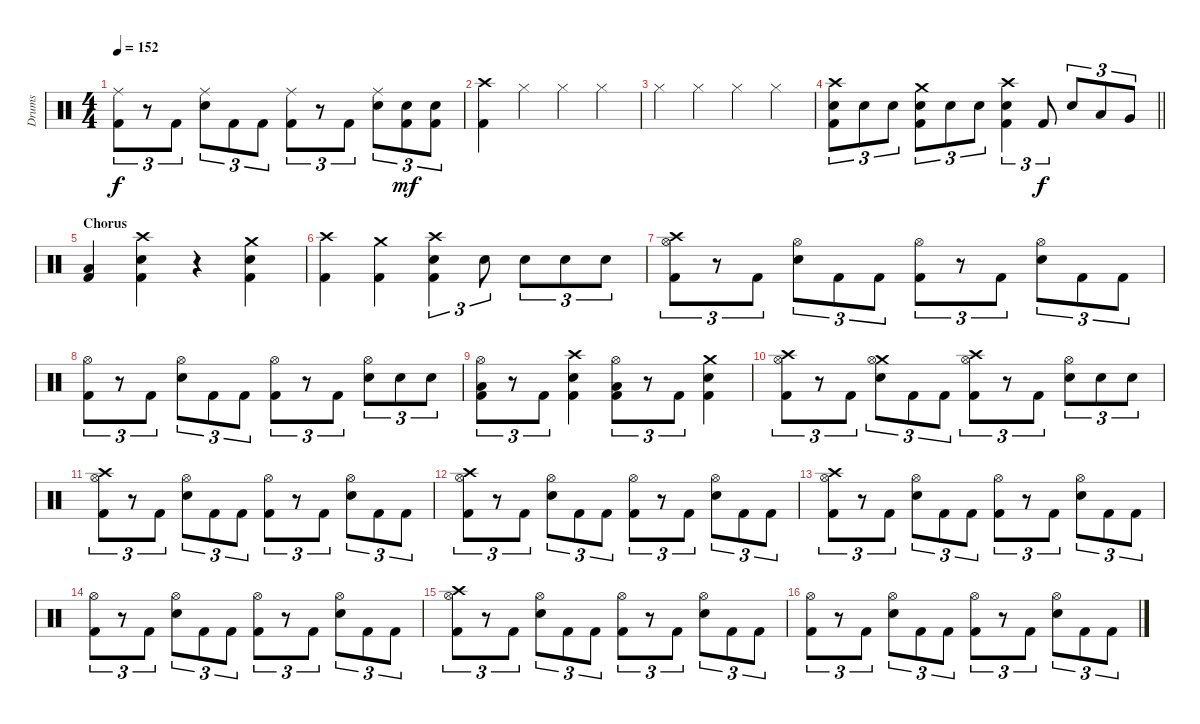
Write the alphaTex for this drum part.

\track ("Drums" "Drums") {instrument percussion}
\staff {score}
\articulation defaults
\ts (4 4)
\tempo 152
\clef neutral
\ks c
("Ride (middle)" "Kick (hit) 2").8{tu (3 2) dy f} r.8{tu (3 2)} "Kick (hit) 2".8{tu (3 2)} ("Ride (middle)" "Snare (hit) 2").8{tu (3 2)} "Kick (hit) 2".8{tu (3 2)} "Kick (hit) 2".8{tu (3 2)} ("Ride (middle)" "Kick (hit) 2").8{tu (3 2)} r.8{tu (3 2)} "Kick (hit) 2".8{tu (3 2)} ("Ride (middle)" "Snare (hit) 2").8{tu (3 2)} ("Snare (hit) 2" "Kick (hit) 2").8{tu (3 2) dy mf} ("Snare (hit) 2" "Kick (hit) 2").8{tu (3 2)} |
("Crash high (hit)" "Kick (hit) 2").4 "Hi-Hat (closed)".4 "Hi-Hat (closed)".4 "Hi-Hat (closed)".4 |
"Hi-Hat (closed)".4 "Hi-Hat (closed)".4 "Hi-Hat (closed)".4 "Hi-Hat (closed)".4 |
\barLineRight lightlight
("Crash high (hit)" "Snare (hit) 2" "Kick (hit) 2").8{tu (3 2)} "Snare (hit) 2".8{tu (3 2)} "Snare (hit) 2".8{tu (3 2)} ("Crash medium (hit)" "Snare (hit) 2" "Kick (hit) 2").8{tu (3 2)} "Snare (hit) 2".8{tu (3 2)} "Snare (hit) 2".8{tu (3 2)} ("Crash high (hit)" "Snare (hit) 2" "Kick (hit) 2").4{tu (3 2)} "Kick (hit) 2".8{tu (3 2) dy f} "Snare (hit) 2".8{tu (3 2)} "Low Tom (hit)".8{tu (3 2)} "Very Low Tom (hit)".8{tu (3 2)} |
\section ("" "Chorus")
("Low Floor Tom (hit)" "Kick (hit) 2").4 ("Crash high (hit)" "Snare (hit) 2" "Kick (hit) 2").4 r.4 ("Crash medium (hit)" "Snare (hit) 2" "Kick (hit) 2").4 |
("Crash high (hit)" "Kick (hit) 2").4 ("Crash medium (hit)" "Kick (hit) 2").4 ("Crash high (hit)" "Snare (hit) 2" "Kick (hit) 2").4{tu (3 2)} "Snare (hit) 2".8{tu (3 2)} "Snare (hit) 2".8{tu (3 2)} "Snare (hit) 2".8{tu (3 2)} "Snare (hit) 2".8{tu (3 2)} |
("Crash high (hit)" "Hi-Hat (open)" "Kick (hit) 2").8{tu (3 2)} r.8{tu (3 2)} "Kick (hit) 2".8{tu (3 2)} ("Hi-Hat (open)" "Snare (hit) 2").8{tu (3 2)} "Kick (hit) 2".8{tu (3 2)} "Kick (hit) 2".8{tu (3 2)} ("Hi-Hat (open)" "Kick (hit) 2").8{tu (3 2)} r.8{tu (3 2)} "Kick (hit) 2".8{tu (3 2)} ("Hi-Hat (open)" "Snare (hit) 2").8{tu (3 2)} "Kick (hit) 2".8{tu (3 2)} "Kick (hit) 2".8{tu (3 2)} |
("Hi-Hat (open)" "Kick (hit) 2").8{tu (3 2)} r.8{tu (3 2)} "Kick (hit) 2".8{tu (3 2)} ("Hi-Hat (open)" "Snare (hit) 2").8{tu (3 2)} "Kick (hit) 2".8{tu (3 2)} "Kick (hit) 2".8{tu (3 2)} ("Hi-Hat (open)" "Kick (hit) 2").8{tu (3 2)} r.8{tu (3 2)} "Kick (hit) 2".8{tu (3 2)} ("Hi-Hat (open)" "Snare (hit) 2").8{tu (3 2)} "Snare (hit) 2".8{tu (3 2)} "Snare (hit) 2".8{tu (3 2)} |
("Hi-Hat (open)" "Low Floor Tom (hit)" "Kick (hit) 2").8{tu (3 2)} r.8{tu (3 2)} "Kick (hit) 2".8{tu (3 2)} ("Crash high (hit)" "Snare (hit) 2" "Kick (hit) 2").4 ("Hi-Hat (open)" "Low Floor Tom (hit)" "Kick (hit) 2").8{tu (3 2)} r.8{tu (3 2)} "Kick (hit) 2".8{tu (3 2)} ("Crash medium (hit)" "Snare (hit) 2" "Kick (hit) 2").4 |
("Crash high (hit)" "Hi-Hat (open)" "Kick (hit) 2").8{tu (3 2)} r.8{tu (3 2)} "Kick (hit) 2".8{tu (3 2)} ("Crash medium (hit)" "Hi-Hat (open)" "Snare (hit) 2").8{tu (3 2)} "Kick (hit) 2".8{tu (3 2)} "Kick (hit) 2".8{tu (3 2)} ("Crash high (hit)" "Hi-Hat (open)" "Kick (hit) 2").8{tu (3 2)} r.8{tu (3 2)} "Kick (hit) 2".8{tu (3 2)} ("Hi-Hat (open)" "Snare (hit) 2").8{tu (3 2)} "Snare (hit) 2".8{tu (3 2)} "Snare (hit) 2".8{tu (3 2)} |
("Crash high (hit)" "Hi-Hat (open)" "Kick (hit) 2").8{tu (3 2)} r.8{tu (3 2)} "Kick (hit) 2".8{tu (3 2)} ("Hi-Hat (open)" "Snare (hit) 2").8{tu (3 2)} "Kick (hit) 2".8{tu (3 2)} "Kick (hit) 2".8{tu (3 2)} ("Hi-Hat (open)" "Kick (hit) 2").8{tu (3 2)} r.8{tu (3 2)} "Kick (hit) 2".8{tu (3 2)} ("Hi-Hat (open)" "Snare (hit) 2").8{tu (3 2)} "Kick (hit) 2".8{tu (3 2)} "Kick (hit) 2".8{tu (3 2)} |
("Crash high (hit)" "Hi-Hat (open)" "Kick (hit) 2").8{tu (3 2)} r.8{tu (3 2)} "Kick (hit) 2".8{tu (3 2)} ("Hi-Hat (open)" "Snare (hit) 2").8{tu (3 2)} "Kick (hit) 2".8{tu (3 2)} "Kick (hit) 2".8{tu (3 2)} ("Hi-Hat (open)" "Kick (hit) 2").8{tu (3 2)} r.8{tu (3 2)} "Kick (hit) 2".8{tu (3 2)} ("Hi-Hat (open)" "Snare (hit) 2").8{tu (3 2)} "Kick (hit) 2".8{tu (3 2)} "Kick (hit) 2".8{tu (3 2)} |
("Crash high (hit)" "Hi-Hat (open)" "Kick (hit) 2").8{tu (3 2)} r.8{tu (3 2)} "Kick (hit) 2".8{tu (3 2)} ("Hi-Hat (open)" "Snare (hit) 2").8{tu (3 2)} "Kick (hit) 2".8{tu (3 2)} "Kick (hit) 2".8{tu (3 2)} ("Hi-Hat (open)" "Kick (hit) 2").8{tu (3 2)} r.8{tu (3 2)} "Kick (hit) 2".8{tu (3 2)} ("Hi-Hat (open)" "Snare (hit) 2").8{tu (3 2)} "Kick (hit) 2".8{tu (3 2)} "Kick (hit) 2".8{tu (3 2)} |
("Hi-Hat (open)" "Kick (hit) 2").8{tu (3 2)} r.8{tu (3 2)} "Kick (hit) 2".8{tu (3 2)} ("Hi-Hat (open)" "Snare (hit) 2").8{tu (3 2)} "Kick (hit) 2".8{tu (3 2)} "Kick (hit) 2".8{tu (3 2)} ("Hi-Hat (open)" "Kick (hit) 2").8{tu (3 2)} r.8{tu (3 2)} "Kick (hit) 2".8{tu (3 2)} ("Hi-Hat (open)" "Snare (hit) 2").8{tu (3 2)} "Kick (hit) 2".8{tu (3 2)} "Kick (hit) 2".8{tu (3 2)} |
("Crash high (hit)" "Hi-Hat (open)" "Kick (hit) 2").8{tu (3 2)} r.8{tu (3 2)} "Kick (hit) 2".8{tu (3 2)} ("Hi-Hat (open)" "Snare (hit) 2").8{tu (3 2)} "Kick (hit) 2".8{tu (3 2)} "Kick (hit) 2".8{tu (3 2)} ("Hi-Hat (open)" "Kick (hit) 2").8{tu (3 2)} r.8{tu (3 2)} "Kick (hit) 2".8{tu (3 2)} ("Hi-Hat (open)" "Snare (hit) 2").8{tu (3 2)} "Kick (hit) 2".8{tu (3 2)} "Kick (hit) 2".8{tu (3 2)} |
("Hi-Hat (open)" "Kick (hit) 2").8{tu (3 2)} r.8{tu (3 2)} "Kick (hit) 2".8{tu (3 2)} ("Hi-Hat (open)" "Snare (hit) 2").8{tu (3 2)} "Kick (hit) 2".8{tu (3 2)} "Kick (hit) 2".8{tu (3 2)} ("Hi-Hat (open)" "Kick (hit) 2").8{tu (3 2)} r.8{tu (3 2)} "Kick (hit) 2".8{tu (3 2)} ("Hi-Hat (open)" "Snare (hit) 2").8{tu (3 2)} "Kick (hit) 2".8{tu (3 2)} "Kick (hit) 2".8{tu (3 2)}
